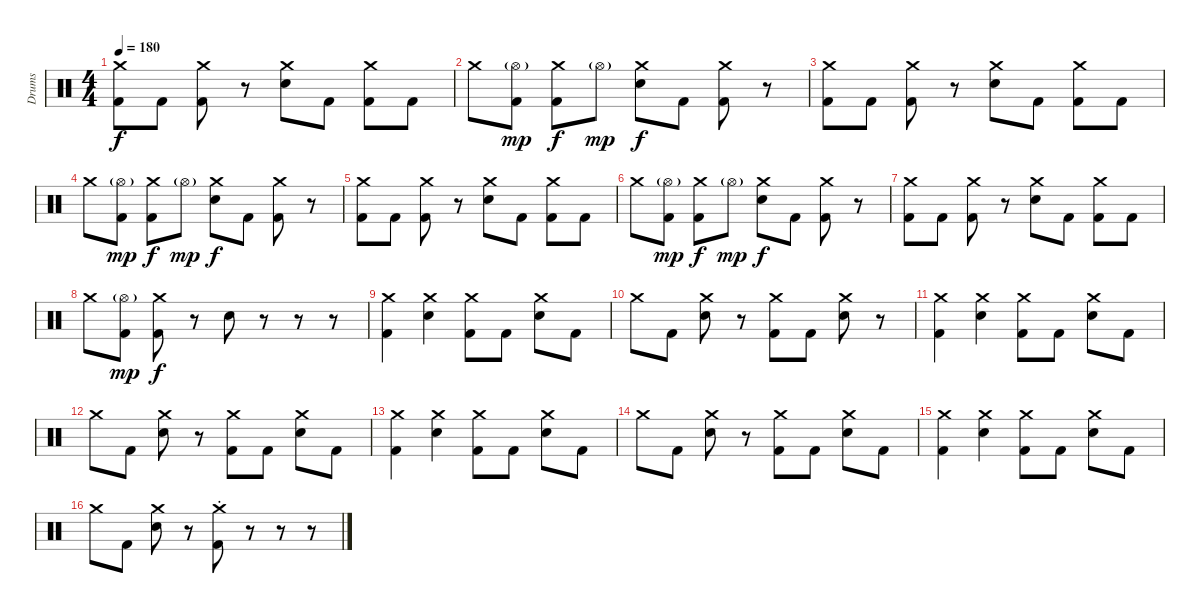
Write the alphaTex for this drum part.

\track ("Drums" "Drums") {instrument percussion}
\staff {score}
\articulation defaults
\ts (4 4)
\tempo 180
\clef neutral
\ks c
("Crash medium (hit)" "Kick (hit) 2").8{dy f} "Kick (hit) 2".8 ("Crash medium (hit)" "Kick (hit) 2").8 r.8 ("Crash medium (hit)" "Electric Snare (hit)").8 "Kick (hit) 2".8 ("Crash medium (hit)" "Kick (hit) 2").8 "Kick (hit) 2".8 |
"Crash medium (hit)".8 ("Hi-Hat (open)"{g} "Kick (hit) 2").8{dy mp} ("Crash medium (hit)" "Kick (hit) 2").8{dy f} "Hi-Hat (open)"{g}.8{dy mp} ("Crash medium (hit)" "Electric Snare (hit)").8{dy f} "Kick (hit) 2".8 ("Crash medium (hit)" "Kick (hit) 2").8 r.8 |
("Crash medium (hit)" "Kick (hit) 2").8 "Kick (hit) 2".8 ("Crash medium (hit)" "Kick (hit) 2").8 r.8 ("Crash medium (hit)" "Electric Snare (hit)").8 "Kick (hit) 2".8 ("Crash medium (hit)" "Kick (hit) 2").8 "Kick (hit) 2".8 |
"Crash medium (hit)".8 ("Hi-Hat (open)"{g} "Kick (hit) 2").8{dy mp} ("Crash medium (hit)" "Kick (hit) 2").8{dy f} "Hi-Hat (open)"{g}.8{dy mp} ("Crash medium (hit)" "Electric Snare (hit)").8{dy f} "Kick (hit) 2".8 ("Crash medium (hit)" "Kick (hit) 2").8 r.8 |
("Crash medium (hit)" "Kick (hit) 2").8 "Kick (hit) 2".8 ("Crash medium (hit)" "Kick (hit) 2").8 r.8 ("Crash medium (hit)" "Electric Snare (hit)").8 "Kick (hit) 2".8 ("Crash medium (hit)" "Kick (hit) 2").8 "Kick (hit) 2".8 |
"Crash medium (hit)".8 ("Hi-Hat (open)"{g} "Kick (hit) 2").8{dy mp} ("Crash medium (hit)" "Kick (hit) 2").8{dy f} "Hi-Hat (open)"{g}.8{dy mp} ("Crash medium (hit)" "Electric Snare (hit)").8{dy f} "Kick (hit) 2".8 ("Crash medium (hit)" "Kick (hit) 2").8 r.8 |
("Crash medium (hit)" "Kick (hit) 2").8 "Kick (hit) 2".8 ("Crash medium (hit)" "Kick (hit) 2").8 r.8 ("Crash medium (hit)" "Electric Snare (hit)").8 "Kick (hit) 2".8 ("Crash medium (hit)" "Kick (hit) 2").8 "Kick (hit) 2".8 |
"Crash medium (hit)".8 ("Hi-Hat (open)"{g} "Kick (hit) 2").8{dy mp} ("Crash medium (hit)" "Kick (hit) 2").8{dy f} r.8 "Electric Snare (hit)".8 r.8 r.8 r.8 |
("Crash medium (hit)" "Kick (hit) 2").4 ("Crash medium (hit)" "Electric Snare (hit)").4 ("Crash medium (hit)" "Kick (hit) 2").8 "Kick (hit) 2".8 ("Crash medium (hit)" "Electric Snare (hit)").8 "Kick (hit) 2".8 |
"Crash medium (hit)".8 "Kick (hit) 2".8 ("Crash medium (hit)" "Electric Snare (hit)").8 r.8 ("Crash medium (hit)" "Kick (hit) 2").8 "Kick (hit) 2".8 ("Crash medium (hit)" "Electric Snare (hit)").8 r.8 |
("Crash medium (hit)" "Kick (hit) 2").4 ("Crash medium (hit)" "Electric Snare (hit)").4 ("Crash medium (hit)" "Kick (hit) 2").8 "Kick (hit) 2".8 ("Crash medium (hit)" "Electric Snare (hit)").8 "Kick (hit) 2".8 |
"Crash medium (hit)".8 "Kick (hit) 2".8 ("Crash medium (hit)" "Electric Snare (hit)").8 r.8 ("Crash medium (hit)" "Kick (hit) 2").8 "Kick (hit) 2".8 ("Crash medium (hit)" "Electric Snare (hit)").8 "Kick (hit) 2".8 |
("Crash medium (hit)" "Kick (hit) 2").4 ("Crash medium (hit)" "Electric Snare (hit)").4 ("Crash medium (hit)" "Kick (hit) 2").8 "Kick (hit) 2".8 ("Crash medium (hit)" "Electric Snare (hit)").8 "Kick (hit) 2".8 |
"Crash medium (hit)".8 "Kick (hit) 2".8 ("Crash medium (hit)" "Electric Snare (hit)").8 r.8 ("Crash medium (hit)" "Kick (hit) 2").8 "Kick (hit) 2".8 ("Crash medium (hit)" "Electric Snare (hit)").8 "Kick (hit) 2".8 |
("Crash medium (hit)" "Kick (hit) 2").4 ("Crash medium (hit)" "Electric Snare (hit)").4 ("Crash medium (hit)" "Kick (hit) 2").8 "Kick (hit) 2".8 ("Crash medium (hit)" "Electric Snare (hit)").8 "Kick (hit) 2".8 |
"Crash medium (hit)".8 "Kick (hit) 2".8 ("Crash medium (hit)" "Electric Snare (hit)").8 r.8 ("Crash medium (hit)"{st} "Kick (hit) 2"{st}).8 r.8 r.8 r.8
